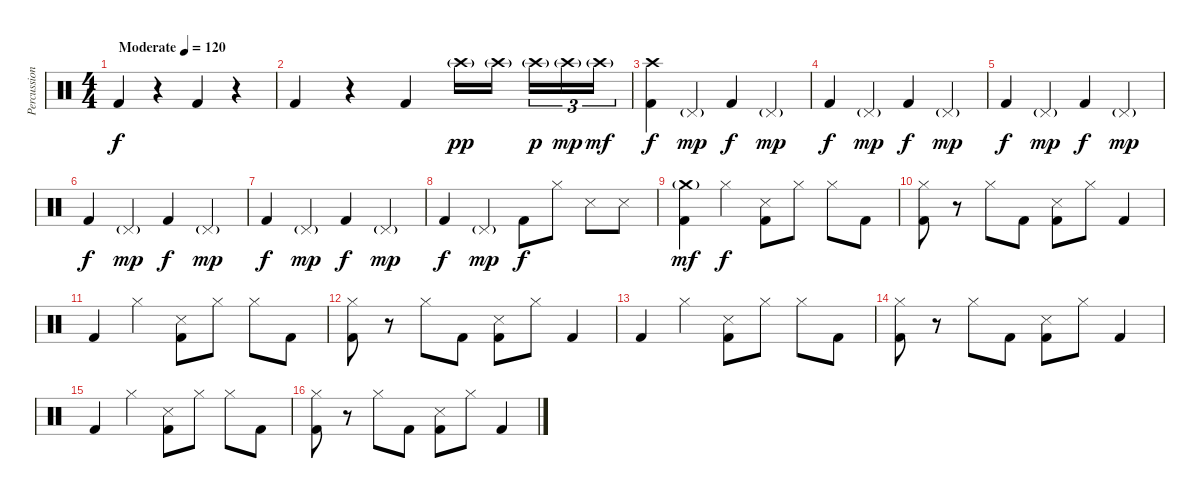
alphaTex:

\track ("Percussion" "Percussion") {instrument percussion}
\staff {score}
\articulation defaults
\ts (4 4)
\tempo (120 "Moderate")
\clef neutral
\ks c "Kick (hit) 2".4{dy f}
r.4 "Kick (hit) 2".4 r.4 |
"Kick (hit) 2".4 r.4 "Kick (hit) 2".4 "Crash high (hit)"{g}.16{dy pp} "Crash high (hit)"{g}.16{beam splitsecondary} "Crash high (hit)"{g}.16{tu (3 2) dy p} "Crash high (hit)"{g}.16{tu (3 2) dy mp} "Crash high (hit)"{g}.16{tu (3 2) dy mf} |
("Crash high (hit)" "Kick (hit) 2").4{dy f} "Pedal Hi-Hat (hit)"{g}.4{dy mp} "Kick (hit) 2".4{dy f} "Pedal Hi-Hat (hit)"{g}.4{dy mp} |
"Kick (hit) 2".4{dy f} "Pedal Hi-Hat (hit)"{g}.4{dy mp} "Kick (hit) 2".4{dy f} "Pedal Hi-Hat (hit)"{g}.4{dy mp} |
"Kick (hit) 2".4{dy f} "Pedal Hi-Hat (hit)"{g}.4{dy mp} "Kick (hit) 2".4{dy f} "Pedal Hi-Hat (hit)"{g}.4{dy mp} |
"Kick (hit) 2".4{dy f} "Pedal Hi-Hat (hit)"{g}.4{dy mp} "Kick (hit) 2".4{dy f} "Pedal Hi-Hat (hit)"{g}.4{dy mp} |
"Kick (hit) 2".4{dy f} "Pedal Hi-Hat (hit)"{g}.4{dy mp} "Kick (hit) 2".4{dy f} "Pedal Hi-Hat (hit)"{g}.4{dy mp} |
"Kick (hit) 2".4{dy f} "Pedal Hi-Hat (hit)"{g}.4{dy mp} "Kick (hit) 2".8{dy f} "Hi-Hat (closed)".8 "Snare (side stick) 3".8 "Snare (side stick) 3".8 |
("Crash medium (hit)"{g} "Kick (hit) 2").4{dy mf} "Hi-Hat (closed)".4{dy f} ("Snare (side stick) 3" "Kick (hit) 2").8 "Hi-Hat (closed)".8 "Hi-Hat (closed)".8 "Kick (hit) 2".8 |
("Hi-Hat (closed)" "Kick (hit) 2").8 r.8 "Hi-Hat (closed)".8 "Kick (hit) 2".8 ("Snare (side stick) 3" "Kick (hit) 2").8 "Hi-Hat (closed)".8 "Kick (hit) 2".4 |
"Kick (hit) 2".4 "Hi-Hat (closed)".4 ("Snare (side stick) 3" "Kick (hit) 2").8 "Hi-Hat (closed)".8 "Hi-Hat (closed)".8 "Kick (hit) 2".8 |
("Hi-Hat (closed)" "Kick (hit) 2").8 r.8 "Hi-Hat (closed)".8 "Kick (hit) 2".8 ("Snare (side stick) 3" "Kick (hit) 2").8 "Hi-Hat (closed)".8 "Kick (hit) 2".4 |
"Kick (hit) 2".4 "Hi-Hat (closed)".4 ("Snare (side stick) 3" "Kick (hit) 2").8 "Hi-Hat (closed)".8 "Hi-Hat (closed)".8 "Kick (hit) 2".8 |
("Hi-Hat (closed)" "Kick (hit) 2").8 r.8 "Hi-Hat (closed)".8 "Kick (hit) 2".8 ("Snare (side stick) 3" "Kick (hit) 2").8 "Hi-Hat (closed)".8 "Kick (hit) 2".4 |
"Kick (hit) 2".4 "Hi-Hat (closed)".4 ("Snare (side stick) 3" "Kick (hit) 2").8 "Hi-Hat (closed)".8 "Hi-Hat (closed)".8 "Kick (hit) 2".8 |
("Hi-Hat (closed)" "Kick (hit) 2").8 r.8 "Hi-Hat (closed)".8 "Kick (hit) 2".8 ("Snare (side stick) 3" "Kick (hit) 2").8 "Hi-Hat (closed)".8 "Kick (hit) 2".4
